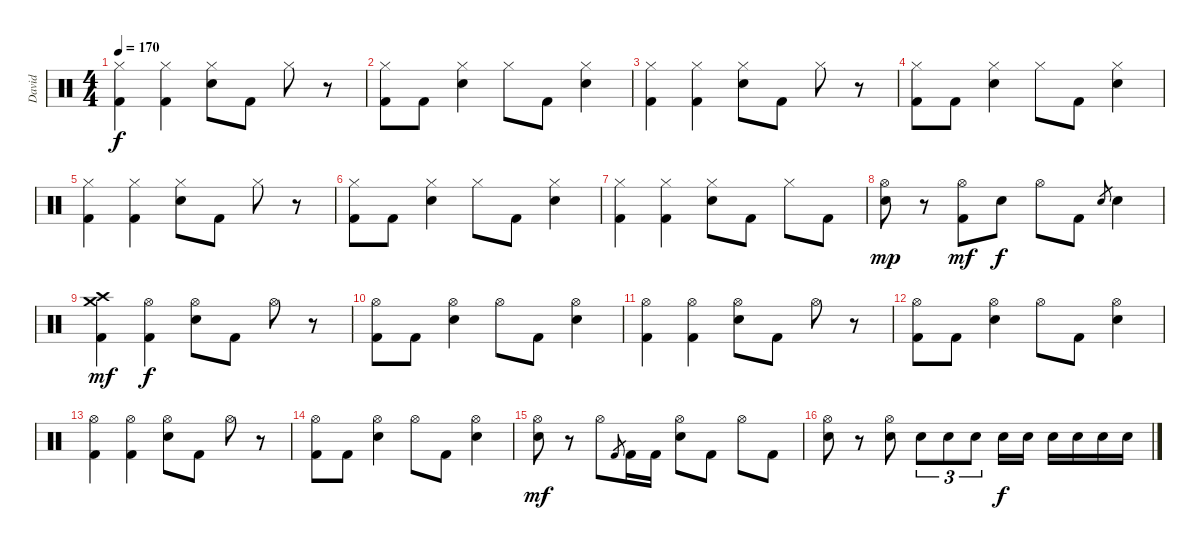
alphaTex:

\track ("David" "David") {instrument percussion}
\staff {score}
\articulation defaults
\ts (4 4)
\tempo 170
\clef neutral
\ks c
("Hi-Hat (closed)" "Kick (hit) 2").4{dy f} ("Hi-Hat (closed)" "Kick (hit) 2").4 ("Hi-Hat (closed)" "Snare (hit) 2").8 "Kick (hit) 2".8 "Hi-Hat (closed)".8 r.8 |
("Hi-Hat (closed)" "Kick (hit) 2").8 "Kick (hit) 2".8 ("Hi-Hat (closed)" "Snare (hit) 2").4 "Hi-Hat (closed)".8 "Kick (hit) 2".8 ("Hi-Hat (closed)" "Snare (hit) 2").4 |
("Hi-Hat (closed)" "Kick (hit) 2").4 ("Hi-Hat (closed)" "Kick (hit) 2").4 ("Hi-Hat (closed)" "Snare (hit) 2").8 "Kick (hit) 2".8 "Hi-Hat (closed)".8 r.8 |
("Hi-Hat (closed)" "Kick (hit) 2").8 "Kick (hit) 2".8 ("Hi-Hat (closed)" "Snare (hit) 2").4 "Hi-Hat (closed)".8 "Kick (hit) 2".8 ("Hi-Hat (closed)" "Snare (hit) 2").4 |
("Hi-Hat (closed)" "Kick (hit) 2").4 ("Hi-Hat (closed)" "Kick (hit) 2").4 ("Hi-Hat (closed)" "Snare (hit) 2").8 "Kick (hit) 2".8 "Hi-Hat (closed)".8 r.8 |
("Hi-Hat (closed)" "Kick (hit) 2").8 "Kick (hit) 2".8 ("Hi-Hat (closed)" "Snare (hit) 2").4 "Hi-Hat (closed)".8 "Kick (hit) 2".8 ("Hi-Hat (closed)" "Snare (hit) 2").4 |
("Hi-Hat (closed)" "Kick (hit) 2").4 ("Hi-Hat (closed)" "Kick (hit) 2").4 ("Hi-Hat (closed)" "Snare (hit) 2").8 "Kick (hit) 2".8 "Hi-Hat (closed)".8 "Kick (hit) 2".8 |
("Hi-Hat (open)" "Snare (hit) 2").8{dy mp} r.8 ("Hi-Hat (open)" "Kick (hit) 2").8{dy mf} "Snare (hit) 2".8{dy f} "Hi-Hat (open)".8 "Kick (hit) 2".8 "Snare (hit) 2".8{gr} "Snare (hit) 2".4 |
("Crash medium (hit)" "Crash high (hit)" "Kick (hit) 2").4{dy mf} ("Hi-Hat (open)" "Kick (hit) 2").4{dy f} ("Hi-Hat (open)" "Snare (hit) 2").8 "Kick (hit) 2".8 "Hi-Hat (open)".8 r.8 |
("Hi-Hat (open)" "Kick (hit) 2").8 "Kick (hit) 2".8 ("Hi-Hat (open)" "Snare (hit) 2").4 "Hi-Hat (open)".8 "Kick (hit) 2".8 ("Hi-Hat (open)" "Snare (hit) 2").4 |
("Hi-Hat (open)" "Kick (hit) 2").4 ("Hi-Hat (open)" "Kick (hit) 2").4 ("Hi-Hat (open)" "Snare (hit) 2").8 "Kick (hit) 2".8 "Hi-Hat (open)".8 r.8 |
("Hi-Hat (open)" "Kick (hit) 2").8 "Kick (hit) 2".8 ("Hi-Hat (open)" "Snare (hit) 2").4 "Hi-Hat (open)".8 "Kick (hit) 2".8 ("Hi-Hat (open)" "Snare (hit) 2").4 |
("Hi-Hat (open)" "Kick (hit) 2").4 ("Hi-Hat (open)" "Kick (hit) 2").4 ("Hi-Hat (open)" "Snare (hit) 2").8 "Kick (hit) 2".8 "Hi-Hat (open)".8 r.8 |
("Hi-Hat (open)" "Kick (hit) 2").8 "Kick (hit) 2".8 ("Hi-Hat (open)" "Snare (hit) 2").4 "Hi-Hat (open)".8 "Kick (hit) 2".8 ("Hi-Hat (open)" "Snare (hit) 2").4 |
("Hi-Hat (open)" "Snare (hit) 2").8{dy mf} r.8 "Hi-Hat (open)".8 "Kick (hit) 2".8{gr} "Kick (hit) 2".16 "Kick (hit) 2".16 ("Hi-Hat (open)" "Snare (hit) 2").8 "Kick (hit) 2".8 "Hi-Hat (open)".8 "Kick (hit) 2".8 |
("Hi-Hat (open)" "Snare (hit) 2").8 r.8 ("Hi-Hat (open)" "Snare (hit) 2").8 "Snare (hit) 2".8{tu (3 2)} "Snare (hit) 2".8{tu (3 2)} "Snare (hit) 2".8{tu (3 2)} "Snare (hit) 2".16{dy f} "Snare (hit) 2".16 "Snare (hit) 2".16 "Snare (hit) 2".16 "Snare (hit) 2".16 "Snare (hit) 2".16
